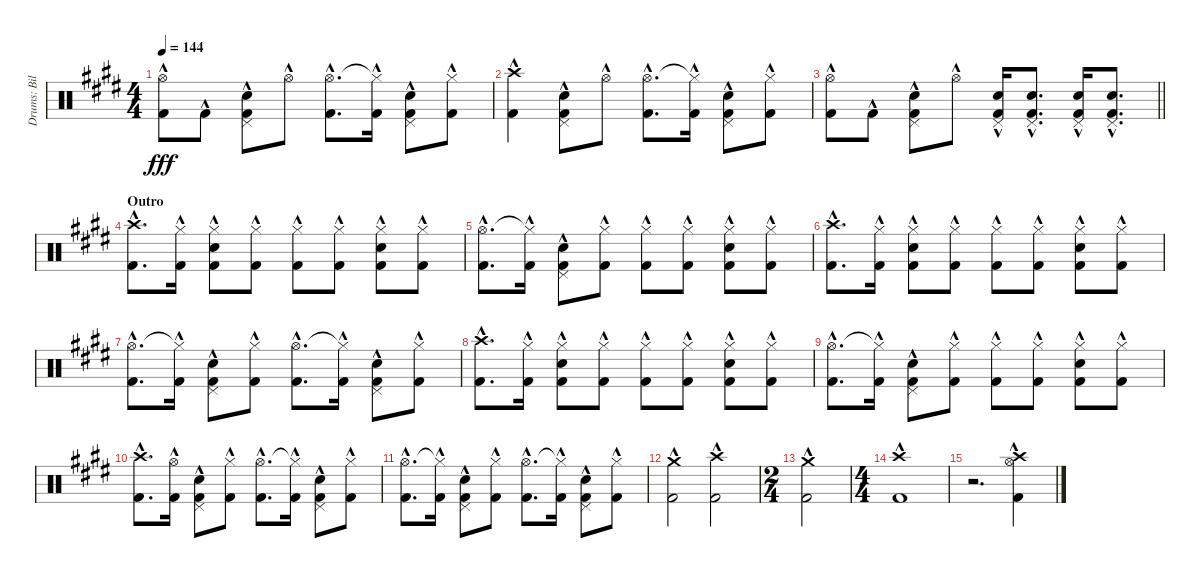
\track ("Drums: Bill" "Drums: Bil") {instrument percussion}
\staff {score}
\articulation defaults
\ts (4 4)
\tempo 144
\clef neutral
\ks e
("Hi-Hat (open)"{hac} "Kick (hit) 2"{hac}).8{dy fff} "Kick (hit) 2"{hac}.8 ("Pedal Hi-Hat (hit)"{hac} "Snare (hit) 2"{hac} "Kick (hit) 2"{hac}).8 "Hi-Hat (open)"{hac}.8 ("Hi-Hat (open)"{hac} "Kick (hit) 2"{hac}).8{d} ("Hi-Hat (closed)"{t} "Kick (hit) 2"{hac}).16 ("Pedal Hi-Hat (hit)"{hac} "Snare (hit) 2"{hac} "Kick (hit) 2"{hac}).8 ("Hi-Hat (closed)"{hac} "Kick (hit) 2"{hac}).8 |
("Crash high (hit)"{hac} "Kick (hit) 2"{hac}).4 ("Pedal Hi-Hat (hit)"{hac} "Snare (hit) 2"{hac} "Kick (hit) 2"{hac}).8 "Hi-Hat (open)"{hac}.8 ("Hi-Hat (open)"{hac} "Kick (hit) 2"{hac}).8{d} ("Hi-Hat (closed)"{t} "Kick (hit) 2"{hac}).16 ("Pedal Hi-Hat (hit)"{hac} "Snare (hit) 2"{hac} "Kick (hit) 2"{hac}).8 ("Hi-Hat (closed)"{hac} "Kick (hit) 2"{hac}).8 |
\barLineRight lightlight
("Hi-Hat (open)"{hac} "Kick (hit) 2"{hac}).8 "Kick (hit) 2"{hac}.8 ("Pedal Hi-Hat (hit)"{hac} "Snare (hit) 2"{hac} "Kick (hit) 2"{hac}).8 "Hi-Hat (open)"{hac}.8 ("Pedal Hi-Hat (hit)"{hac} "Snare (hit) 2"{hac} "Kick (hit) 2"{hac}).16 ("Pedal Hi-Hat (hit)"{hac} "Snare (hit) 2"{hac} "Kick (hit) 2"{hac}).8{d} ("Pedal Hi-Hat (hit)"{hac} "Snare (hit) 2"{hac} "Kick (hit) 2"{hac}).16 ("Pedal Hi-Hat (hit)"{hac} "Snare (hit) 2"{hac} "Kick (hit) 2"{hac}).8{d} |
\section ("" "Outro")
("Crash high (hit)"{hac} "Kick (hit) 2"{hac}).8{d} ("Hi-Hat (closed)"{hac} "Kick (hit) 2"{hac}).16 ("Hi-Hat (closed)"{hac} "Snare (hit) 2"{hac} "Kick (hit) 2"{hac}).8 ("Hi-Hat (closed)"{hac} "Kick (hit) 2"{hac}).8 ("Hi-Hat (closed)"{hac} "Kick (hit) 2"{hac}).8 ("Hi-Hat (closed)"{hac} "Kick (hit) 2"{hac}).8 ("Hi-Hat (closed)"{hac} "Snare (hit) 2"{hac} "Kick (hit) 2"{hac}).8 ("Hi-Hat (closed)"{hac} "Kick (hit) 2"{hac}).8 |
("Hi-Hat (open)"{hac} "Kick (hit) 2"{hac}).8{d} ("Hi-Hat (closed)"{t} "Kick (hit) 2"{hac}).16 ("Pedal Hi-Hat (hit)"{hac} "Snare (hit) 2"{hac} "Kick (hit) 2"{hac}).8 ("Hi-Hat (closed)"{hac} "Kick (hit) 2"{hac}).8 ("Hi-Hat (closed)"{hac} "Kick (hit) 2"{hac}).8 ("Hi-Hat (closed)"{hac} "Kick (hit) 2"{hac}).8 ("Hi-Hat (closed)"{hac} "Snare (hit) 2"{hac} "Kick (hit) 2"{hac}).8 ("Hi-Hat (closed)"{hac} "Kick (hit) 2"{hac}).8 |
("Crash high (hit)"{hac} "Kick (hit) 2"{hac}).8{d} ("Hi-Hat (closed)"{hac} "Kick (hit) 2"{hac}).16 ("Hi-Hat (closed)"{hac} "Snare (hit) 2"{hac} "Kick (hit) 2"{hac}).8 ("Hi-Hat (closed)"{hac} "Kick (hit) 2"{hac}).8 ("Hi-Hat (closed)"{hac} "Kick (hit) 2"{hac}).8 ("Hi-Hat (closed)"{hac} "Kick (hit) 2"{hac}).8 ("Hi-Hat (closed)"{hac} "Snare (hit) 2"{hac} "Kick (hit) 2"{hac}).8 ("Hi-Hat (closed)"{hac} "Kick (hit) 2"{hac}).8 |
("Hi-Hat (open)"{hac} "Kick (hit) 2"{hac}).8{d} ("Hi-Hat (closed)"{t} "Kick (hit) 2"{hac}).16 ("Pedal Hi-Hat (hit)"{hac} "Snare (hit) 2"{hac} "Kick (hit) 2"{hac}).8 ("Hi-Hat (closed)"{hac} "Kick (hit) 2"{hac}).8 ("Hi-Hat (open)"{hac} "Kick (hit) 2"{hac}).8{d} ("Hi-Hat (closed)"{t} "Kick (hit) 2"{hac}).16 ("Pedal Hi-Hat (hit)"{hac} "Snare (hit) 2"{hac} "Kick (hit) 2"{hac}).8 ("Hi-Hat (closed)"{hac} "Kick (hit) 2"{hac}).8 |
("Crash high (hit)"{hac} "Kick (hit) 2"{hac}).8{d} ("Hi-Hat (closed)"{hac} "Kick (hit) 2"{hac}).16 ("Hi-Hat (closed)"{hac} "Snare (hit) 2"{hac} "Kick (hit) 2"{hac}).8 ("Hi-Hat (closed)"{hac} "Kick (hit) 2"{hac}).8 ("Hi-Hat (closed)"{hac} "Kick (hit) 2"{hac}).8 ("Hi-Hat (closed)"{hac} "Kick (hit) 2"{hac}).8 ("Hi-Hat (closed)"{hac} "Snare (hit) 2"{hac} "Kick (hit) 2"{hac}).8 ("Hi-Hat (closed)"{hac} "Kick (hit) 2"{hac}).8 |
("Hi-Hat (open)"{hac} "Kick (hit) 2"{hac}).8{d} ("Hi-Hat (closed)"{t} "Kick (hit) 2"{hac}).16 ("Pedal Hi-Hat (hit)"{hac} "Snare (hit) 2"{hac} "Kick (hit) 2"{hac}).8 ("Hi-Hat (closed)"{hac} "Kick (hit) 2"{hac}).8 ("Hi-Hat (closed)"{hac} "Kick (hit) 2"{hac}).8 ("Hi-Hat (closed)"{hac} "Kick (hit) 2"{hac}).8 ("Hi-Hat (closed)"{hac} "Snare (hit) 2"{hac} "Kick (hit) 2"{hac}).8 ("Hi-Hat (closed)"{hac} "Kick (hit) 2"{hac}).8 |
("Crash high (hit)"{hac} "Kick (hit) 2"{hac}).8{d} ("Hi-Hat (open)"{hac} "Kick (hit) 2"{hac}).16 ("Pedal Hi-Hat (hit)"{hac} "Snare (hit) 2"{hac} "Kick (hit) 2"{hac}).8 ("Hi-Hat (closed)"{hac} "Kick (hit) 2"{hac}).8 ("Hi-Hat (open)"{hac} "Kick (hit) 2"{hac}).8{d} ("Hi-Hat (closed)"{t} "Kick (hit) 2"{hac}).16 ("Pedal Hi-Hat (hit)"{hac} "Snare (hit) 2"{hac} "Kick (hit) 2"{hac}).8 ("Hi-Hat (closed)"{hac} "Kick (hit) 2"{hac}).8 |
("Hi-Hat (open)"{hac} "Kick (hit) 2"{hac}).8{d} ("Hi-Hat (closed)"{t} "Kick (hit) 2"{hac}).16 ("Pedal Hi-Hat (hit)"{hac} "Snare (hit) 2"{hac} "Kick (hit) 2"{hac}).8 ("Hi-Hat (closed)"{hac} "Kick (hit) 2"{hac}).8 ("Hi-Hat (open)"{hac} "Kick (hit) 2"{hac}).8{d} ("Hi-Hat (closed)"{t} "Kick (hit) 2"{hac}).16 ("Pedal Hi-Hat (hit)"{hac} "Snare (hit) 2"{hac} "Kick (hit) 2"{hac}).8 ("Hi-Hat (closed)"{hac} "Kick (hit) 2"{hac}).8 |
("Crash medium (hit)" "Kick (hit) 2"{hac}).2 ("Crash high (hit)" "Kick (hit) 2"{hac}).2 |
\ts (2 4)
("Crash medium (hit)" "Kick (hit) 2"{hac}).2 |
\ts (4 4)
("Crash high (hit)" "Kick (hit) 2"{hac}).1 |
r.2{d} ("Crash high (hit)" "Hi-Hat (open)" "Kick (hit) 2"{hac}).4
